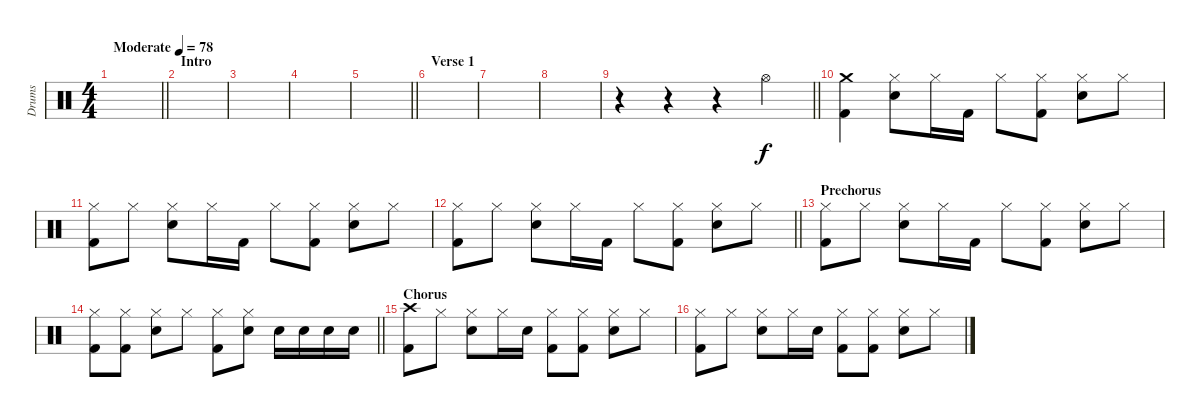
\track ("Drums" "Drums") {instrument percussion}
\staff {score}
\articulation defaults
\ts (4 4)
\tempo (78 "Moderate")
\clef neutral
\barLineRight lightlight
\ks c
|
\section ("" "Intro")
|
|
|
\barLineRight lightlight
|
\section ("" "Verse 1")
|
|
|
\barLineRight lightlight
r.4 r.4 r.4 "Hi-Hat (open)".4 |
("Crash medium (hit)" "Kick (hit) 2").4 ("Hi-Hat (closed)" "Electric Snare (hit)").8 "Hi-Hat (closed)".16 "Kick (hit) 2".16 "Hi-Hat (closed)".8 ("Hi-Hat (closed)" "Kick (hit) 2").8 ("Hi-Hat (closed)" "Electric Snare (hit)").8 "Hi-Hat (closed)".8 |
("Hi-Hat (closed)" "Kick (hit) 2").8 "Hi-Hat (closed)".8 ("Hi-Hat (closed)" "Electric Snare (hit)").8 "Hi-Hat (closed)".16 "Kick (hit) 2".16 "Hi-Hat (closed)".8 ("Hi-Hat (closed)" "Kick (hit) 2").8 ("Hi-Hat (closed)" "Electric Snare (hit)").8 "Hi-Hat (closed)".8 |
\barLineRight lightlight
("Hi-Hat (closed)" "Kick (hit) 2").8 "Hi-Hat (closed)".8 ("Hi-Hat (closed)" "Electric Snare (hit)").8 "Hi-Hat (closed)".16 "Kick (hit) 2".16 "Hi-Hat (closed)".8 ("Hi-Hat (closed)" "Kick (hit) 2").8 ("Hi-Hat (closed)" "Electric Snare (hit)").8 "Hi-Hat (closed)".8 |
\section ("" "Prechorus")
("Hi-Hat (closed)" "Kick (hit) 2").8 "Hi-Hat (closed)".8 ("Hi-Hat (closed)" "Electric Snare (hit)").8 "Hi-Hat (closed)".16 "Kick (hit) 2".16 "Hi-Hat (closed)".8 ("Hi-Hat (closed)" "Kick (hit) 2").8 ("Hi-Hat (closed)" "Electric Snare (hit)").8 "Hi-Hat (closed)".8 |
\barLineRight lightlight
("Hi-Hat (closed)" "Kick (hit) 2").8 ("Hi-Hat (closed)" "Kick (hit) 2").8 ("Hi-Hat (closed)" "Electric Snare (hit)").8 "Hi-Hat (closed)".8 ("Hi-Hat (closed)" "Kick (hit) 2").8 ("Hi-Hat (closed)" "Electric Snare (hit)").8 "Electric Snare (hit)".16 "Electric Snare (hit)".16 "Electric Snare (hit)".16 "Electric Snare (hit)".16 |
\section ("" "Chorus")
("Crash high (hit)" "Kick (hit) 2").8 "Hi-Hat (closed)".8 ("Hi-Hat (closed)" "Electric Snare (hit)").8 "Hi-Hat (closed)".16 "Electric Snare (hit)".16 ("Hi-Hat (closed)" "Kick (hit) 2").8 ("Hi-Hat (closed)" "Kick (hit) 2").8 ("Hi-Hat (closed)" "Electric Snare (hit)").8 "Hi-Hat (closed)".8 |
("Hi-Hat (closed)" "Kick (hit) 2").8 "Hi-Hat (closed)".8 ("Hi-Hat (closed)" "Electric Snare (hit)").8 "Hi-Hat (closed)".16 "Electric Snare (hit)".16 ("Hi-Hat (closed)" "Kick (hit) 2").8 ("Hi-Hat (closed)" "Kick (hit) 2").8 ("Hi-Hat (closed)" "Electric Snare (hit)").8 "Hi-Hat (closed)".8
